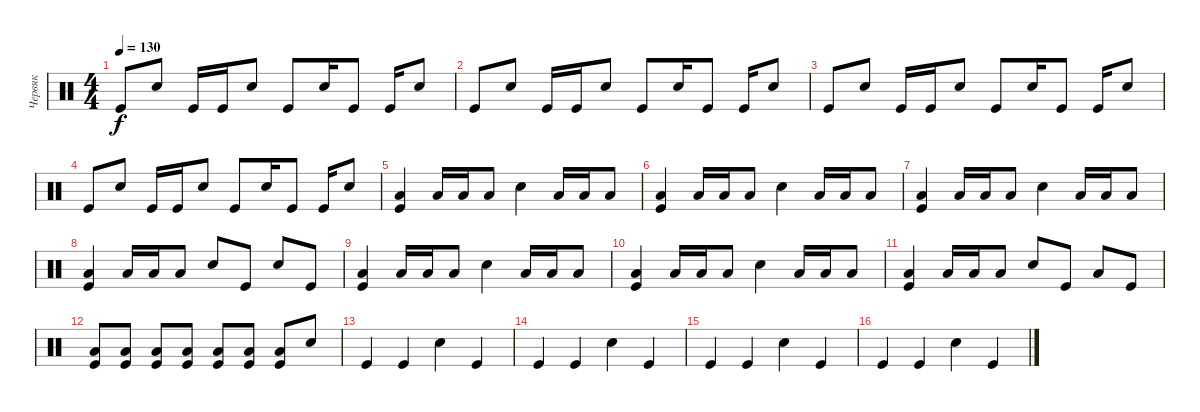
\track ("Червяк" "Червяк") {instrument percussion}
\staff {score}
\articulation defaults
\ts (4 4)
\tempo 130
\clef neutral
\ks c "Kick (hit)".8{dy f} "Electric Snare (hit)".8 "Kick (hit)".16 "Kick (hit)".16 "Electric Snare (hit)".8 "Kick (hit)".8 "Electric Snare (hit)".16 "Kick (hit)".8 "Kick (hit)".16 "Electric Snare (hit)".8
|
"Kick (hit)".8 "Electric Snare (hit)".8 "Kick (hit)".16 "Kick (hit)".16 "Electric Snare (hit)".8 "Kick (hit)".8 "Electric Snare (hit)".16 "Kick (hit)".8 "Kick (hit)".16 "Electric Snare (hit)".8 |
"Kick (hit)".8 "Electric Snare (hit)".8 "Kick (hit)".16 "Kick (hit)".16 "Electric Snare (hit)".8 "Kick (hit)".8 "Electric Snare (hit)".16 "Kick (hit)".8 "Kick (hit)".16 "Electric Snare (hit)".8 |
"Kick (hit)".8 "Electric Snare (hit)".8 "Kick (hit)".16 "Kick (hit)".16 "Electric Snare (hit)".8 "Kick (hit)".8 "Electric Snare (hit)".16 "Kick (hit)".8 "Kick (hit)".16 "Electric Snare (hit)".8 |
("Kick (hit)" "Low Floor Tom (hit)").4 "Low Floor Tom (hit)".16 "Low Floor Tom (hit)".16 "Low Floor Tom (hit)".8 "Electric Snare (hit)".4 "Low Floor Tom (hit)".16 "Low Floor Tom (hit)".16 "Low Floor Tom (hit)".8 |
("Kick (hit)" "Low Floor Tom (hit)").4 "Low Floor Tom (hit)".16 "Low Floor Tom (hit)".16 "Low Floor Tom (hit)".8 "Electric Snare (hit)".4 "Low Floor Tom (hit)".16 "Low Floor Tom (hit)".16 "Low Floor Tom (hit)".8 |
("Kick (hit)" "Low Floor Tom (hit)").4 "Low Floor Tom (hit)".16 "Low Floor Tom (hit)".16 "Low Floor Tom (hit)".8 "Electric Snare (hit)".4 "Low Floor Tom (hit)".16 "Low Floor Tom (hit)".16 "Low Floor Tom (hit)".8 |
("Kick (hit)" "Low Floor Tom (hit)").4 "Low Floor Tom (hit)".16 "Low Floor Tom (hit)".16 "Low Floor Tom (hit)".8 "Electric Snare (hit)".8 "Kick (hit)".8 "Electric Snare (hit)".8 "Kick (hit)".8 |
("Kick (hit)" "Low Floor Tom (hit)").4 "Low Floor Tom (hit)".16 "Low Floor Tom (hit)".16 "Low Floor Tom (hit)".8 "Electric Snare (hit)".4 "Low Floor Tom (hit)".16 "Low Floor Tom (hit)".16 "Low Floor Tom (hit)".8 |
("Kick (hit)" "Low Floor Tom (hit)").4 "Low Floor Tom (hit)".16 "Low Floor Tom (hit)".16 "Low Floor Tom (hit)".8 "Electric Snare (hit)".4 "Low Floor Tom (hit)".16 "Low Floor Tom (hit)".16 "Low Floor Tom (hit)".8 |
("Kick (hit)" "Low Floor Tom (hit)").4 "Low Floor Tom (hit)".16 "Low Floor Tom (hit)".16 "Low Floor Tom (hit)".8 "Electric Snare (hit)".8 "Kick (hit)".8 "Low Floor Tom (hit)".8 "Kick (hit)".8 |
("Kick (hit)" "Low Floor Tom (hit)").8{volume 14} ("Kick (hit)" "Low Floor Tom (hit)").8 ("Kick (hit)" "Low Floor Tom (hit)").8 ("Kick (hit)" "Low Floor Tom (hit)").8 ("Kick (hit)" "Low Floor Tom (hit)").8 ("Kick (hit)" "Low Floor Tom (hit)").8 ("Kick (hit)" "Low Floor Tom (hit)").8 "Electric Snare (hit)".8 |
"Kick (hit)".4 "Kick (hit)".4 "Electric Snare (hit)".4 "Kick (hit)".4 |
"Kick (hit)".4 "Kick (hit)".4 "Electric Snare (hit)".4 "Kick (hit)".4 |
"Kick (hit)".4 "Kick (hit)".4 "Electric Snare (hit)".4 "Kick (hit)".4 |
"Kick (hit)".4 "Kick (hit)".4 "Electric Snare (hit)".4 "Kick (hit)".4
